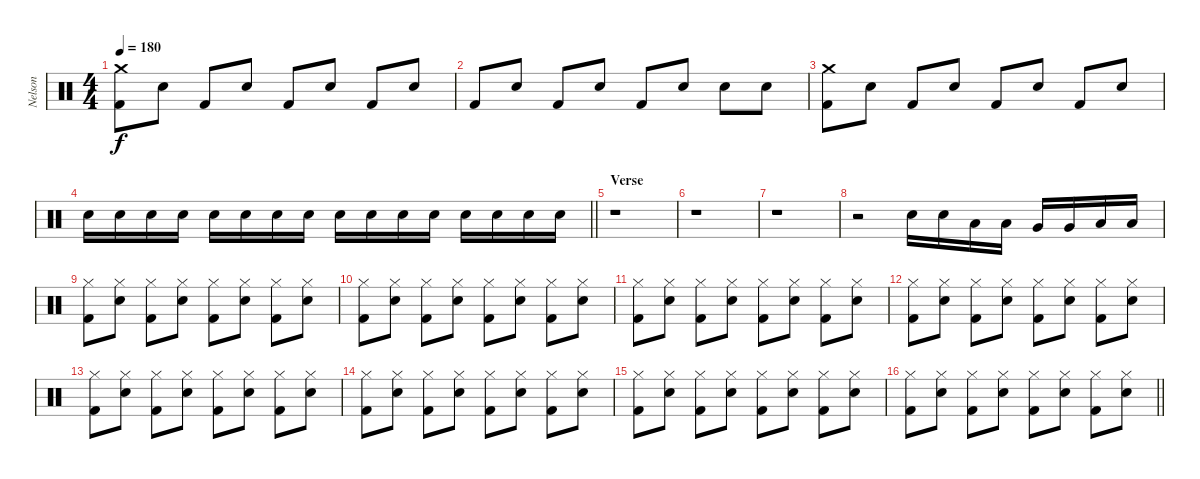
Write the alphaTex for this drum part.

\track ("Nelson" "Nelson") {instrument percussion}
\staff {score}
\articulation defaults
\ts (4 4)
\tempo 180
\clef neutral
\ks c
("Crash medium (hit)" "Kick (hit) 2").8{dy f} "Electric Snare (hit)".8 "Kick (hit) 2".8 "Electric Snare (hit)".8 "Kick (hit) 2".8 "Electric Snare (hit)".8 "Kick (hit) 2".8 "Electric Snare (hit)".8 |
"Kick (hit) 2".8 "Electric Snare (hit)".8 "Kick (hit) 2".8 "Electric Snare (hit)".8 "Kick (hit) 2".8 "Electric Snare (hit)".8 "Electric Snare (hit)".8 "Electric Snare (hit)".8 |
("Crash medium (hit)" "Kick (hit) 2").8 "Electric Snare (hit)".8 "Kick (hit) 2".8 "Electric Snare (hit)".8 "Kick (hit) 2".8 "Electric Snare (hit)".8 "Kick (hit) 2".8 "Electric Snare (hit)".8 |
\barLineRight lightlight "Electric Snare (hit)".16 "Electric Snare (hit)".16 "Electric Snare (hit)".16 "Electric Snare (hit)".16 "Electric Snare (hit)".16 "Electric Snare (hit)".16 "Electric Snare (hit)".16 "Electric Snare (hit)".16 "Electric Snare (hit)".16 "Electric Snare (hit)".16 "Electric Snare (hit)".16 "Electric Snare (hit)".16 "Electric Snare (hit)".16 "Electric Snare (hit)".16 "Electric Snare (hit)".16 "Electric Snare (hit)".16
|
\section ("" "Verse")
r.1 |
r.1 |
r.1 |
r.2 "Electric Snare (hit)".16 "Electric Snare (hit)".16 "Low Tom (hit)".16 "Low Tom (hit)".16 "Very Low Tom (hit)".16 "Very Low Tom (hit)".16 "Low Floor Tom (hit)".16 "Low Floor Tom (hit)".16 |
("Hi-Hat (closed)" "Kick (hit) 2").8 ("Electric Snare (hit)" "Hi-Hat (closed)").8 ("Hi-Hat (closed)" "Kick (hit) 2").8 ("Electric Snare (hit)" "Hi-Hat (closed)").8 ("Hi-Hat (closed)" "Kick (hit) 2").8 ("Electric Snare (hit)" "Hi-Hat (closed)").8 ("Hi-Hat (closed)" "Kick (hit) 2").8 ("Electric Snare (hit)" "Hi-Hat (closed)").8 |
("Hi-Hat (closed)" "Kick (hit) 2").8 ("Electric Snare (hit)" "Hi-Hat (closed)").8 ("Hi-Hat (closed)" "Kick (hit) 2").8 ("Electric Snare (hit)" "Hi-Hat (closed)").8 ("Hi-Hat (closed)" "Kick (hit) 2").8 ("Electric Snare (hit)" "Hi-Hat (closed)").8 ("Hi-Hat (closed)" "Kick (hit) 2").8 ("Electric Snare (hit)" "Hi-Hat (closed)").8 |
("Hi-Hat (closed)" "Kick (hit) 2").8 ("Electric Snare (hit)" "Hi-Hat (closed)").8 ("Hi-Hat (closed)" "Kick (hit) 2").8 ("Electric Snare (hit)" "Hi-Hat (closed)").8 ("Hi-Hat (closed)" "Kick (hit) 2").8 ("Electric Snare (hit)" "Hi-Hat (closed)").8 ("Hi-Hat (closed)" "Kick (hit) 2").8 ("Electric Snare (hit)" "Hi-Hat (closed)").8 |
("Hi-Hat (closed)" "Kick (hit) 2").8 ("Electric Snare (hit)" "Hi-Hat (closed)").8 ("Hi-Hat (closed)" "Kick (hit) 2").8 ("Electric Snare (hit)" "Hi-Hat (closed)").8 ("Hi-Hat (closed)" "Kick (hit) 2").8 ("Electric Snare (hit)" "Hi-Hat (closed)").8 ("Hi-Hat (closed)" "Kick (hit) 2").8 ("Electric Snare (hit)" "Hi-Hat (closed)").8 |
("Hi-Hat (closed)" "Kick (hit) 2").8 ("Electric Snare (hit)" "Hi-Hat (closed)").8 ("Hi-Hat (closed)" "Kick (hit) 2").8 ("Electric Snare (hit)" "Hi-Hat (closed)").8 ("Hi-Hat (closed)" "Kick (hit) 2").8 ("Electric Snare (hit)" "Hi-Hat (closed)").8 ("Hi-Hat (closed)" "Kick (hit) 2").8 ("Electric Snare (hit)" "Hi-Hat (closed)").8 |
("Hi-Hat (closed)" "Kick (hit) 2").8 ("Electric Snare (hit)" "Hi-Hat (closed)").8 ("Hi-Hat (closed)" "Kick (hit) 2").8 ("Electric Snare (hit)" "Hi-Hat (closed)").8 ("Hi-Hat (closed)" "Kick (hit) 2").8 ("Electric Snare (hit)" "Hi-Hat (closed)").8 ("Hi-Hat (closed)" "Kick (hit) 2").8 ("Electric Snare (hit)" "Hi-Hat (closed)").8 |
("Hi-Hat (closed)" "Kick (hit) 2").8 ("Electric Snare (hit)" "Hi-Hat (closed)").8 ("Hi-Hat (closed)" "Kick (hit) 2").8 ("Electric Snare (hit)" "Hi-Hat (closed)").8 ("Hi-Hat (closed)" "Kick (hit) 2").8 ("Electric Snare (hit)" "Hi-Hat (closed)").8 ("Hi-Hat (closed)" "Kick (hit) 2").8 ("Electric Snare (hit)" "Hi-Hat (closed)").8 |
\barLineRight lightlight
("Hi-Hat (closed)" "Kick (hit) 2").8 ("Electric Snare (hit)" "Hi-Hat (closed)").8 ("Hi-Hat (closed)" "Kick (hit) 2").8 ("Electric Snare (hit)" "Hi-Hat (closed)").8 ("Hi-Hat (closed)" "Kick (hit) 2").8 ("Electric Snare (hit)" "Hi-Hat (closed)").8 ("Hi-Hat (closed)" "Kick (hit) 2").8 ("Electric Snare (hit)" "Hi-Hat (closed)").8
